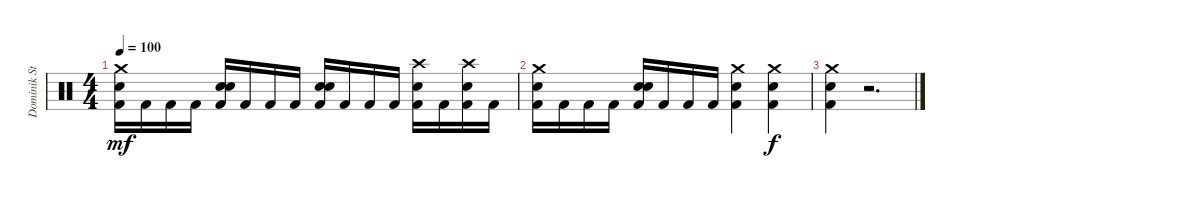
\track ("Dominik Storch" "Dominik St") {instrument percussion}
\staff {score}
\articulation defaults
\ts (4 4)
\tempo 100
\clef neutral
\ks c
("Crash medium (hit)" "Electric Snare (hit)" "Kick (hit) 2").16{dy mf} "Kick (hit) 2".16 "Kick (hit) 2".16 "Kick (hit) 2".16 ("Electric Snare (hit)" "Electric Snare (hit)" "Kick (hit) 2").16 "Kick (hit) 2".16 "Kick (hit) 2".16 "Kick (hit) 2".16 ("Electric Snare (hit)" "Electric Snare (hit)" "Kick (hit) 2").16 "Kick (hit) 2".16 "Kick (hit) 2".16 "Kick (hit) 2".16 ("Crash high (hit)" "Electric Snare (hit)" "Kick (hit) 2").16 "Kick (hit) 2".16 ("Crash high (hit)" "Electric Snare (hit)" "Kick (hit) 2").16 "Kick (hit) 2".16 |
("Crash medium (hit)" "Electric Snare (hit)" "Kick (hit) 2").16 "Kick (hit) 2".16 "Kick (hit) 2".16 "Kick (hit) 2".16 ("Electric Snare (hit)" "Electric Snare (hit)" "Kick (hit) 2").16 "Kick (hit) 2".16 "Kick (hit) 2".16 "Kick (hit) 2".16 ("Crash medium (hit)" "Electric Snare (hit)" "Kick (hit) 2").4 ("Crash medium (hit)" "Electric Snare (hit)" "Kick (hit) 2").4{dy f} |
("Crash medium (hit)" "Electric Snare (hit)" "Kick (hit) 2").4 r.2{d}
